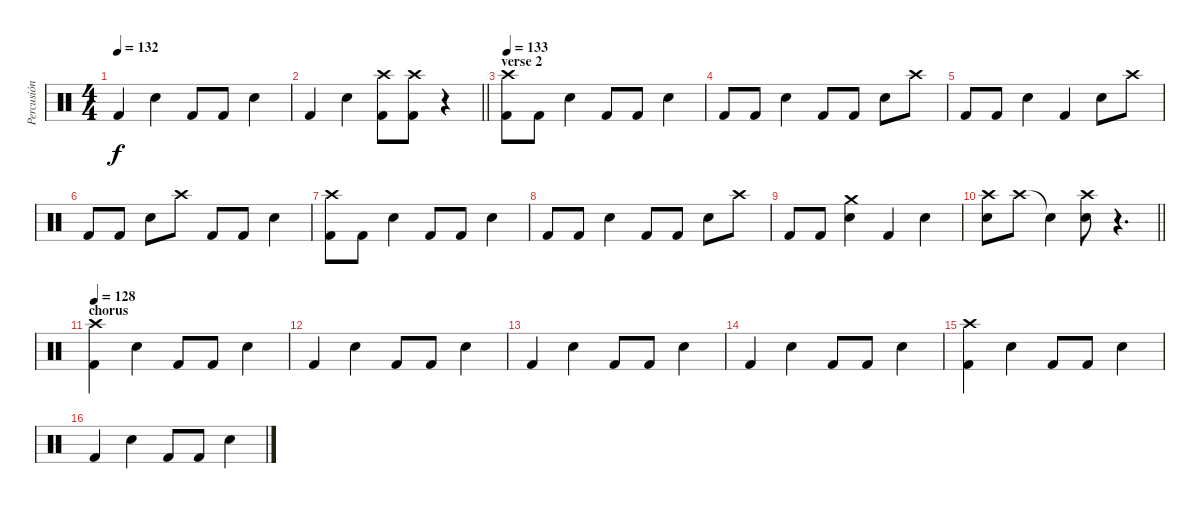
\track ("Percusión" "Percusión") {instrument percussion}
\staff {score}
\articulation defaults
\ts (4 4)
\tempo 132
\clef neutral
\ks c "Kick (hit) 2".4{dy f} "Electric Snare (hit)".4 "Kick (hit) 2".8 "Kick (hit) 2".8 "Electric Snare (hit)".4
|
\barLineRight lightlight "Kick (hit) 2".4 "Electric Snare (hit)".4
("Crash high (hit)" "Kick (hit) 2").8 ("Crash high (hit)" "Kick (hit) 2").8 r.4 |
\section ("" "verse 2")
\tempo 133
("Crash high (hit)" "Kick (hit) 2").8 "Kick (hit) 2".8 "Electric Snare (hit)".4 "Kick (hit) 2".8 "Kick (hit) 2".8 "Electric Snare (hit)".4 |
"Kick (hit) 2".8 "Kick (hit) 2".8 "Electric Snare (hit)".4 "Kick (hit) 2".8 "Kick (hit) 2".8 "Electric Snare (hit)".8 "Crash high (hit)".8 |
"Kick (hit) 2".8 "Kick (hit) 2".8 "Electric Snare (hit)".4 "Kick (hit) 2".4 "Electric Snare (hit)".8 "Crash high (hit)".8 |
"Kick (hit) 2".8 "Kick (hit) 2".8 "Electric Snare (hit)".8 "Crash high (hit)".8 "Kick (hit) 2".8 "Kick (hit) 2".8 "Electric Snare (hit)".4 |
("Crash high (hit)" "Kick (hit) 2").8 "Kick (hit) 2".8 "Electric Snare (hit)".4 "Kick (hit) 2".8 "Kick (hit) 2".8 "Electric Snare (hit)".4 |
"Kick (hit) 2".8 "Kick (hit) 2".8 "Electric Snare (hit)".4 "Kick (hit) 2".8 "Kick (hit) 2".8 "Electric Snare (hit)".8 "Crash high (hit)".8 |
"Kick (hit) 2".8 "Kick (hit) 2".8 ("Crash medium (hit)" "Electric Snare (hit)").4 "Kick (hit) 2".4 "Electric Snare (hit)".4 |
\barLineRight lightlight
("Crash high (hit)" "Electric Snare (hit)").8 "Crash high (hit)".8 "Snare (hit)"{t}.4 ("Crash high (hit)" "Electric Snare (hit)").8 r.4{d} |
\section ("" "chorus")
\tempo 128
("Crash high (hit)" "Kick (hit) 2").4 "Electric Snare (hit)".4 "Kick (hit) 2".8 "Kick (hit) 2".8 "Electric Snare (hit)".4 |
"Kick (hit) 2".4 "Electric Snare (hit)".4 "Kick (hit) 2".8 "Kick (hit) 2".8 "Electric Snare (hit)".4 |
"Kick (hit) 2".4 "Electric Snare (hit)".4 "Kick (hit) 2".8 "Kick (hit) 2".8 "Electric Snare (hit)".4 |
"Kick (hit) 2".4 "Electric Snare (hit)".4 "Kick (hit) 2".8 "Kick (hit) 2".8 "Electric Snare (hit)".4 |
("Crash high (hit)" "Kick (hit) 2").4 "Electric Snare (hit)".4 "Kick (hit) 2".8 "Kick (hit) 2".8 "Electric Snare (hit)".4 |
"Kick (hit) 2".4 "Electric Snare (hit)".4 "Kick (hit) 2".8 "Kick (hit) 2".8 "Electric Snare (hit)".4
